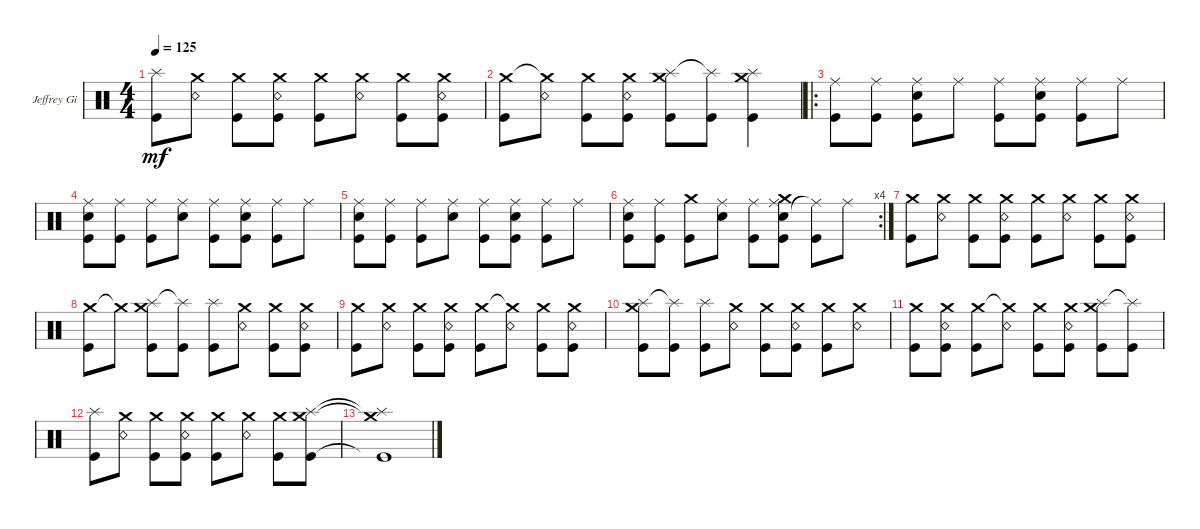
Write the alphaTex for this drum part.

\defaultSystemsLayout 4
\bracketExtendMode groupsimilarinstruments
\firstSystemTrackNameOrientation horizontal
\otherSystemsTrackNameOrientation horizontal
\track ("Jeffrey Gilbert" "Jeffrey Gi") {instrument percussion}
\staff {score}
\articulation defaults
\ts (4 4)
\tempo 125
\clef neutral
\ks c
("Kick (hit)" "Splash (hit)").8{dy mf} ("Crash medium (hit)" "Snare (rim shot)").8 ("Crash medium (hit)" "Kick (hit)").8 ("Crash medium (hit)" "Snare (rim shot)" "Kick (hit)").8 ("Crash medium (hit)" "Kick (hit)").8 ("Crash medium (hit)" "Snare (rim shot)").8 ("Crash medium (hit)" "Kick (hit)").8 ("Crash medium (hit)" "Kick (hit)" "Snare (rim shot)").8 |
("Crash medium (hit)" "Kick (hit)").8 ("Crash medium (hit)"{t} "Snare (rim shot)").8 ("Kick (hit)" "Crash medium (hit)").8 ("Crash medium (hit)" "Kick (hit)" "Snare (rim shot)").8 ("Kick (hit)" "Splash (hit)" "Crash medium (hit)").8 ("Kick (hit)" "Splash (hit)"{t}).8 ("Kick (hit)" "Splash (hit)" "Crash medium (hit)").4 |
\ro
("Ride (middle)" "Kick (hit)").8 ("Ride (middle)" "Kick (hit)").8 ("Ride (middle)" "Snare (hit) 2" "Kick (hit)").8 "Ride (middle)".8 ("Ride (middle)" "Kick (hit)").8 ("Ride (middle)" "Snare (hit) 2" "Kick (hit)").8 ("Ride (middle)" "Kick (hit)").8 "Ride (middle)".8 |
("Ride (middle)" "Snare (hit) 2" "Kick (hit)").8 ("Ride (middle)" "Kick (hit)").8 ("Ride (middle)" "Kick (hit)").8 ("Ride (middle)" "Snare (hit) 2").8 ("Ride (middle)" "Kick (hit)").8 ("Ride (middle)" "Snare (hit) 2" "Kick (hit)").8 ("Ride (middle)" "Kick (hit)").8 "Ride (middle)".8 |
("Ride (middle)" "Snare (hit) 2" "Kick (hit)").8 ("Ride (middle)" "Kick (hit)").8 ("Ride (middle)" "Kick (hit)").8 ("Ride (middle)" "Snare (hit) 2").8 ("Ride (middle)" "Kick (hit)").8 ("Ride (middle)" "Snare (hit) 2" "Kick (hit)").8 ("Ride (middle)" "Kick (hit)").8 "Ride (middle)".8 |
\rc 4
("Ride (middle)" "Snare (hit) 2" "Kick (hit)").8 ("Ride (middle)" "Kick (hit)").8 ("Kick (hit)" "Crash medium (hit)").8 ("Ride (middle)" "Snare (hit) 2").8 ("Ride (middle)" "Kick (hit)").8 ("Snare (hit) 2" "Kick (hit)" "Crash medium (hit)" "Ride (middle)").8 ("Ride (middle)"{t} "Kick (hit)").8 "Ride (middle)".8 |
("Crash medium (hit)" "Kick (hit)").8 ("Crash medium (hit)" "Snare (rim shot)").8 ("Crash medium (hit)" "Kick (hit)").8 ("Crash medium (hit)" "Kick (hit)" "Snare (rim shot)").8 ("Crash medium (hit)" "Kick (hit)").8 ("Crash medium (hit)" "Snare (rim shot)").8 ("Crash medium (hit)" "Kick (hit)").8 ("Crash medium (hit)" "Snare (rim shot)" "Kick (hit)").8 |
("Crash medium (hit)" "Kick (hit)").8 "Crash medium (hit)"{t}.8 ("Kick (hit)" "Splash (hit)" "Crash medium (hit)").8 ("Kick (hit)" "Splash (hit)"{t}).8 ("Kick (hit)" "Splash (hit)").8 ("Crash medium (hit)" "Snare (rim shot)").8 ("Crash medium (hit)" "Kick (hit)").8 ("Crash medium (hit)" "Snare (rim shot)" "Kick (hit)").8 |
("Crash medium (hit)" "Kick (hit)").8 ("Crash medium (hit)" "Snare (rim shot)").8 ("Crash medium (hit)" "Kick (hit)").8 ("Crash medium (hit)" "Kick (hit)" "Snare (rim shot)").8 ("Crash medium (hit)" "Kick (hit)").8 ("Crash medium (hit)"{t} "Snare (rim shot)").8 ("Kick (hit)" "Crash medium (hit)").8 ("Crash medium (hit)" "Kick (hit)" "Snare (rim shot)").8 |
("Kick (hit)" "Splash (hit)" "Crash medium (hit)").8 ("Kick (hit)" "Splash (hit)"{t}).8 ("Kick (hit)" "Splash (hit)").8 ("Crash medium (hit)" "Snare (rim shot)").8 ("Crash medium (hit)" "Kick (hit)").8 ("Crash medium (hit)" "Snare (rim shot)" "Kick (hit)").8 ("Crash medium (hit)" "Kick (hit)").8 ("Crash medium (hit)" "Snare (rim shot)").8 |
("Crash medium (hit)" "Kick (hit)").8 ("Crash medium (hit)" "Kick (hit)" "Snare (rim shot)").8 ("Crash medium (hit)" "Kick (hit)").8 ("Crash medium (hit)"{t} "Snare (rim shot)").8 ("Kick (hit)" "Crash medium (hit)").8 ("Crash medium (hit)" "Kick (hit)" "Snare (rim shot)").8 ("Kick (hit)" "Splash (hit)" "Crash medium (hit)").8 ("Kick (hit)" "Splash (hit)"{t}).8 |
("Kick (hit)" "Splash (hit)").8 ("Crash medium (hit)" "Snare (rim shot)").8 ("Crash medium (hit)" "Kick (hit)").8 ("Crash medium (hit)" "Snare (rim shot)" "Kick (hit)").8 ("Crash medium (hit)" "Kick (hit)").8 ("Crash medium (hit)" "Snare (rim shot)").8 ("Crash medium (hit)" "Kick (hit)").8 ("Crash medium (hit)" "Kick (hit)" "Splash (hit)").8 |
("Crash medium (hit)"{t} "Kick (hit)"{t} "Splash (hit)"{t}).1
